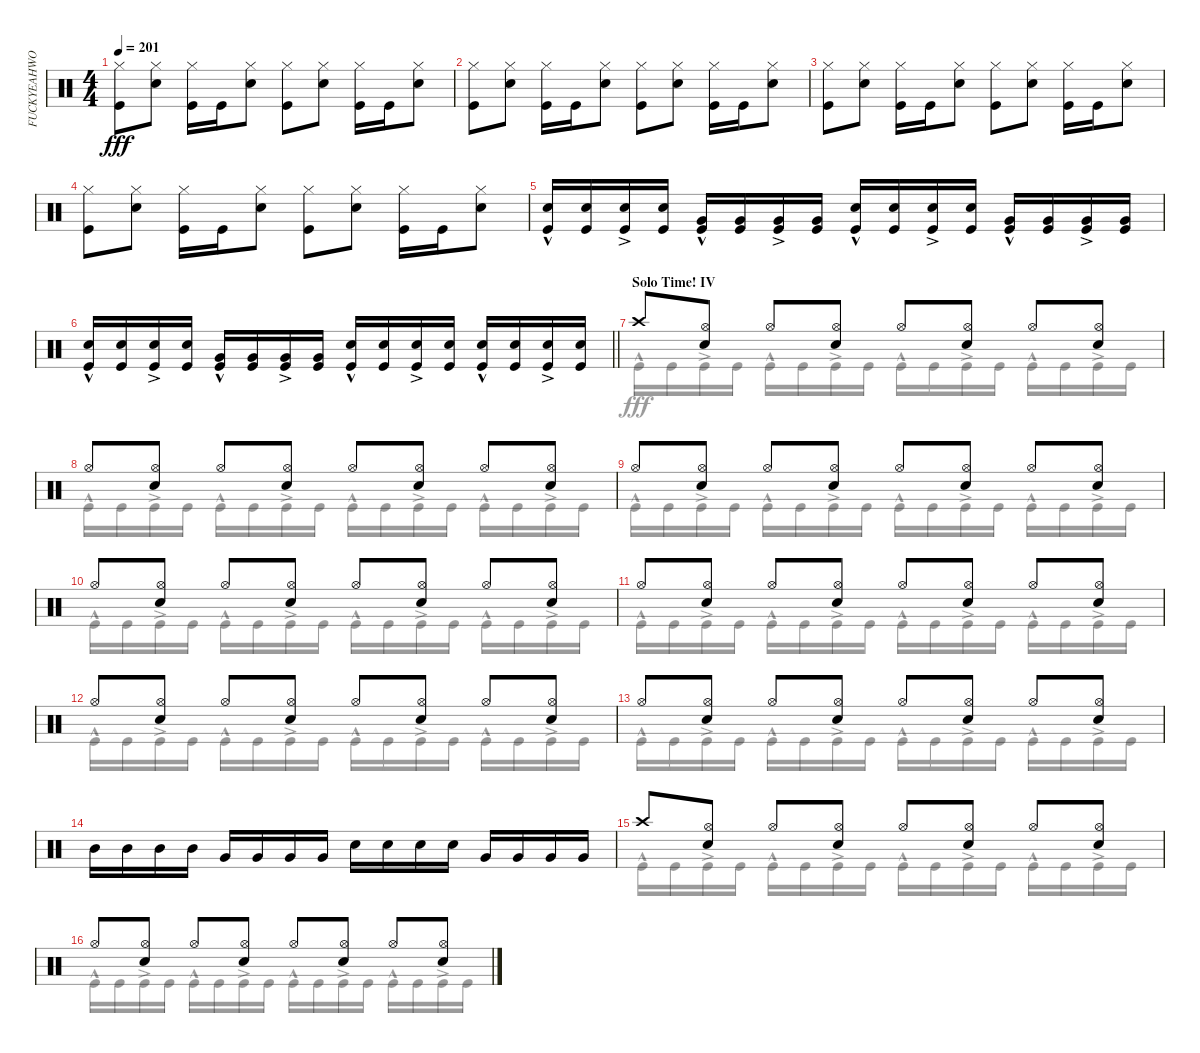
\track ("FUCKYEAHWOOTDAVEMACKINTOSH(Percussion)" "FUCKYEAHWO") {instrument percussion}
\staff {score}
\articulation defaults
\voice
\ts (4 4)
\tempo 201
\clef neutral
\ks c
("Kick (hit)" "Hi-Hat (closed)").8{dy fff} ("Snare (hit) 2" "Hi-Hat (closed)").8 ("Kick (hit)" "Hi-Hat (closed)").16 "Kick (hit)".16 ("Snare (hit) 2" "Hi-Hat (closed)").8 ("Kick (hit)" "Hi-Hat (closed)").8 ("Snare (hit) 2" "Hi-Hat (closed)").8 ("Kick (hit)" "Hi-Hat (closed)").16 "Kick (hit)".16 ("Snare (hit) 2" "Hi-Hat (closed)").8 |
("Kick (hit)" "Hi-Hat (closed)").8 ("Snare (hit) 2" "Hi-Hat (closed)").8 ("Kick (hit)" "Hi-Hat (closed)").16 "Kick (hit)".16 ("Snare (hit) 2" "Hi-Hat (closed)").8 ("Kick (hit)" "Hi-Hat (closed)").8 ("Snare (hit) 2" "Hi-Hat (closed)").8 ("Kick (hit)" "Hi-Hat (closed)").16 "Kick (hit)".16 ("Snare (hit) 2" "Hi-Hat (closed)").8 |
("Kick (hit)" "Hi-Hat (closed)").8 ("Snare (hit) 2" "Hi-Hat (closed)").8 ("Kick (hit)" "Hi-Hat (closed)").16 "Kick (hit)".16 ("Snare (hit) 2" "Hi-Hat (closed)").8 ("Kick (hit)" "Hi-Hat (closed)").8 ("Snare (hit) 2" "Hi-Hat (closed)").8 ("Kick (hit)" "Hi-Hat (closed)").16 "Kick (hit)".16 ("Snare (hit) 2" "Hi-Hat (closed)").8 |
("Kick (hit)" "Hi-Hat (closed)").8 ("Snare (hit) 2" "Hi-Hat (closed)").8 ("Kick (hit)" "Hi-Hat (closed)").16 "Kick (hit)".16 ("Snare (hit) 2" "Hi-Hat (closed)").8 ("Kick (hit)" "Hi-Hat (closed)").8 ("Snare (hit) 2" "Hi-Hat (closed)").8 ("Kick (hit)" "Hi-Hat (closed)").16 "Kick (hit)".16 ("Snare (hit) 2" "Hi-Hat (closed)").8 |
("Snare (hit) 2" "Kick (hit)"{hac}).16 ("Snare (hit) 2" "Kick (hit)").16 ("Snare (hit) 2" "Kick (hit)"{ac}).16 ("Snare (hit) 2" "Kick (hit)").16 ("Very Low Tom (hit)" "Kick (hit)"{hac}).16 ("Very Low Tom (hit)" "Kick (hit)").16 ("Very Low Tom (hit)" "Kick (hit)"{ac}).16 ("Very Low Tom (hit)" "Kick (hit)").16 ("Snare (hit) 2" "Kick (hit)"{hac}).16 ("Snare (hit) 2" "Kick (hit)").16 ("Snare (hit) 2" "Kick (hit)"{ac}).16 ("Snare (hit) 2" "Kick (hit)").16 ("Very Low Tom (hit)" "Kick (hit)"{hac}).16 ("Very Low Tom (hit)" "Kick (hit)").16 ("Very Low Tom (hit)" "Kick (hit)"{ac}).16 ("Very Low Tom (hit)" "Kick (hit)").16 |
\barLineRight lightlight
("Snare (hit) 2" "Kick (hit)"{hac}).16 ("Snare (hit) 2" "Kick (hit)").16 ("Snare (hit) 2" "Kick (hit)"{ac}).16 ("Snare (hit) 2" "Kick (hit)").16 ("Very Low Tom (hit)" "Kick (hit)"{hac}).16 ("Very Low Tom (hit)" "Kick (hit)").16 ("Very Low Tom (hit)" "Kick (hit)"{ac}).16 ("Very Low Tom (hit)" "Kick (hit)").16 ("Snare (hit) 2" "Kick (hit)"{hac}).16 ("Snare (hit) 2" "Kick (hit)").16 ("Snare (hit) 2" "Kick (hit)"{ac}).16 ("Snare (hit) 2" "Kick (hit)").16 ("Snare (hit) 2" "Kick (hit)"{hac}).16 ("Snare (hit) 2" "Kick (hit)").16 ("Snare (hit) 2" "Kick (hit)"{ac}).16 ("Snare (hit) 2" "Kick (hit)").16 |
\section ("" "Solo Time! IV")
"Crash high (hit)".8 ("Hi-Hat (open)" "Snare (hit) 2").8 "Hi-Hat (open)".8 ("Hi-Hat (open)" "Snare (hit) 2").8 "Hi-Hat (open)".8 ("Hi-Hat (open)" "Snare (hit) 2").8 "Hi-Hat (open)".8 ("Hi-Hat (open)" "Snare (hit) 2").8 |
"Hi-Hat (open)".8 ("Hi-Hat (open)" "Snare (hit) 2").8 "Hi-Hat (open)".8 ("Hi-Hat (open)" "Snare (hit) 2").8 "Hi-Hat (open)".8 ("Hi-Hat (open)" "Snare (hit) 2").8 "Hi-Hat (open)".8 ("Hi-Hat (open)" "Snare (hit) 2").8 |
"Hi-Hat (open)".8 ("Hi-Hat (open)" "Snare (hit) 2").8 "Hi-Hat (open)".8 ("Hi-Hat (open)" "Snare (hit) 2").8 "Hi-Hat (open)".8 ("Hi-Hat (open)" "Snare (hit) 2").8 "Hi-Hat (open)".8 ("Hi-Hat (open)" "Snare (hit) 2").8 |
"Hi-Hat (open)".8 ("Hi-Hat (open)" "Snare (hit) 2").8 "Hi-Hat (open)".8 ("Hi-Hat (open)" "Snare (hit) 2").8 "Hi-Hat (open)".8 ("Hi-Hat (open)" "Snare (hit) 2").8 "Hi-Hat (open)".8 ("Hi-Hat (open)" "Snare (hit) 2").8 |
"Hi-Hat (open)".8 ("Hi-Hat (open)" "Snare (hit) 2").8 "Hi-Hat (open)".8 ("Hi-Hat (open)" "Snare (hit) 2").8 "Hi-Hat (open)".8 ("Hi-Hat (open)" "Snare (hit) 2").8 "Hi-Hat (open)".8 ("Hi-Hat (open)" "Snare (hit) 2").8 |
"Hi-Hat (open)".8 ("Hi-Hat (open)" "Snare (hit) 2").8 "Hi-Hat (open)".8 ("Hi-Hat (open)" "Snare (hit) 2").8 "Hi-Hat (open)".8 ("Hi-Hat (open)" "Snare (hit) 2").8 "Hi-Hat (open)".8 ("Hi-Hat (open)" "Snare (hit) 2").8 |
"Hi-Hat (open)".8 ("Hi-Hat (open)" "Snare (hit) 2").8 "Hi-Hat (open)".8 ("Hi-Hat (open)" "Snare (hit) 2").8 "Hi-Hat (open)".8 ("Hi-Hat (open)" "Snare (hit) 2").8 "Hi-Hat (open)".8 ("Hi-Hat (open)" "Snare (hit) 2").8 |
"Mid Tom (hit)".16 "Mid Tom (hit)".16 "Mid Tom (hit)".16 "Mid Tom (hit)".16 "Very Low Tom (hit)".16 "Very Low Tom (hit)".16 "Very Low Tom (hit)".16 "Very Low Tom (hit)".16 "Snare (hit) 2".16 "Snare (hit) 2".16 "Snare (hit) 2".16 "Snare (hit) 2".16 "Very Low Tom (hit)".16 "Very Low Tom (hit)".16 "Very Low Tom (hit)".16 "Very Low Tom (hit)".16 |
"Crash high (hit)".8 ("Hi-Hat (open)" "Snare (hit) 2").8 "Hi-Hat (open)".8 ("Hi-Hat (open)" "Snare (hit) 2").8 "Hi-Hat (open)".8 ("Hi-Hat (open)" "Snare (hit) 2").8 "Hi-Hat (open)".8 ("Hi-Hat (open)" "Snare (hit) 2").8 |
"Hi-Hat (open)".8 ("Hi-Hat (open)" "Snare (hit) 2").8 "Hi-Hat (open)".8 ("Hi-Hat (open)" "Snare (hit) 2").8 "Hi-Hat (open)".8 ("Hi-Hat (open)" "Snare (hit) 2").8 "Hi-Hat (open)".8 ("Hi-Hat (open)" "Snare (hit) 2").8
\voice
\clef neutral
\ottava regular
\simile none
\ks c
|
|
|
|
|
\barLineRight lightlight
|
"Kick (hit)"{hac}.16 "Kick (hit)".16 "Kick (hit)"{ac}.16 "Kick (hit)".16 "Kick (hit)"{hac}.16 "Kick (hit)".16 "Kick (hit)"{ac}.16 "Kick (hit)".16 "Kick (hit)"{hac}.16 "Kick (hit)".16 "Kick (hit)"{ac}.16 "Kick (hit)".16 "Kick (hit)"{hac}.16 "Kick (hit)".16 "Kick (hit)"{ac}.16 "Kick (hit)".16 |
"Kick (hit)"{hac}.16 "Kick (hit)".16 "Kick (hit)"{ac}.16 "Kick (hit)".16 "Kick (hit)"{hac}.16 "Kick (hit)".16 "Kick (hit)"{ac}.16 "Kick (hit)".16 "Kick (hit)"{hac}.16 "Kick (hit)".16 "Kick (hit)"{ac}.16 "Kick (hit)".16 "Kick (hit)"{hac}.16 "Kick (hit)".16 "Kick (hit)"{ac}.16 "Kick (hit)".16 |
"Kick (hit)"{hac}.16 "Kick (hit)".16 "Kick (hit)"{ac}.16 "Kick (hit)".16 "Kick (hit)"{hac}.16 "Kick (hit)".16 "Kick (hit)"{ac}.16 "Kick (hit)".16 "Kick (hit)"{hac}.16 "Kick (hit)".16 "Kick (hit)"{ac}.16 "Kick (hit)".16 "Kick (hit)"{hac}.16 "Kick (hit)".16 "Kick (hit)"{ac}.16 "Kick (hit)".16 |
"Kick (hit)"{hac}.16 "Kick (hit)".16 "Kick (hit)"{ac}.16 "Kick (hit)".16 "Kick (hit)"{hac}.16 "Kick (hit)".16 "Kick (hit)"{ac}.16 "Kick (hit)".16 "Kick (hit)"{hac}.16 "Kick (hit)".16 "Kick (hit)"{ac}.16 "Kick (hit)".16 "Kick (hit)"{hac}.16 "Kick (hit)".16 "Kick (hit)"{ac}.16 "Kick (hit)".16 |
"Kick (hit)"{hac}.16 "Kick (hit)".16 "Kick (hit)"{ac}.16 "Kick (hit)".16 "Kick (hit)"{hac}.16 "Kick (hit)".16 "Kick (hit)"{ac}.16 "Kick (hit)".16 "Kick (hit)"{hac}.16 "Kick (hit)".16 "Kick (hit)"{ac}.16 "Kick (hit)".16 "Kick (hit)"{hac}.16 "Kick (hit)".16 "Kick (hit)"{ac}.16 "Kick (hit)".16 |
"Kick (hit)"{hac}.16 "Kick (hit)".16 "Kick (hit)"{ac}.16 "Kick (hit)".16 "Kick (hit)"{hac}.16 "Kick (hit)".16 "Kick (hit)"{ac}.16 "Kick (hit)".16 "Kick (hit)"{hac}.16 "Kick (hit)".16 "Kick (hit)"{ac}.16 "Kick (hit)".16 "Kick (hit)"{hac}.16 "Kick (hit)".16 "Kick (hit)"{ac}.16 "Kick (hit)".16 |
"Kick (hit)"{hac}.16 "Kick (hit)".16 "Kick (hit)"{ac}.16 "Kick (hit)".16 "Kick (hit)"{hac}.16 "Kick (hit)".16 "Kick (hit)"{ac}.16 "Kick (hit)".16 "Kick (hit)"{hac}.16 "Kick (hit)".16 "Kick (hit)"{ac}.16 "Kick (hit)".16 "Kick (hit)"{hac}.16 "Kick (hit)".16 "Kick (hit)"{ac}.16 "Kick (hit)".16 |
|
"Kick (hit)"{hac}.16 "Kick (hit)".16 "Kick (hit)"{ac}.16 "Kick (hit)".16 "Kick (hit)"{hac}.16 "Kick (hit)".16 "Kick (hit)"{ac}.16 "Kick (hit)".16 "Kick (hit)"{hac}.16 "Kick (hit)".16 "Kick (hit)"{ac}.16 "Kick (hit)".16 "Kick (hit)"{hac}.16 "Kick (hit)".16 "Kick (hit)"{ac}.16 "Kick (hit)".16 |
"Kick (hit)"{hac}.16 "Kick (hit)".16 "Kick (hit)"{ac}.16 "Kick (hit)".16 "Kick (hit)"{hac}.16 "Kick (hit)".16 "Kick (hit)"{ac}.16 "Kick (hit)".16 "Kick (hit)"{hac}.16 "Kick (hit)".16 "Kick (hit)"{ac}.16 "Kick (hit)".16 "Kick (hit)"{hac}.16 "Kick (hit)".16 "Kick (hit)"{ac}.16 "Kick (hit)".16
